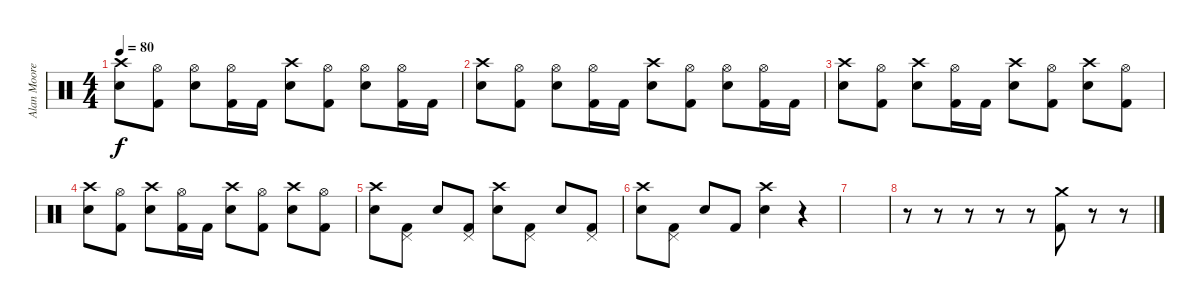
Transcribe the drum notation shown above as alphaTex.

\track ("Alan Moore" "Alan Moore") {instrument percussion}
\staff {score}
\articulation defaults
\ts (4 4)
\tempo 80
\clef neutral
\ks c
("Snare (hit) 2" "Crash high (hit)").8{dy f} ("Hi-Hat (open)" "Kick (hit) 2").8 ("Snare (hit) 2" "Hi-Hat (open)").8 ("Hi-Hat (open)" "Kick (hit) 2").16 "Kick (hit) 2".16 ("Snare (hit) 2" "Crash high (hit)").8 ("Hi-Hat (open)" "Kick (hit) 2").8 ("Snare (hit) 2" "Hi-Hat (open)").8 ("Hi-Hat (open)" "Kick (hit) 2").16 "Kick (hit) 2".16 |
("Snare (hit) 2" "Crash high (hit)").8 ("Hi-Hat (open)" "Kick (hit) 2").8 ("Snare (hit) 2" "Hi-Hat (open)").8 ("Hi-Hat (open)" "Kick (hit) 2").16 "Kick (hit) 2".16 ("Snare (hit) 2" "Crash high (hit)").8 ("Hi-Hat (open)" "Kick (hit) 2").8 ("Snare (hit) 2" "Hi-Hat (open)").8 ("Hi-Hat (open)" "Kick (hit) 2").16 "Kick (hit) 2".16 |
("Snare (hit) 2" "Crash high (hit)").8 ("Hi-Hat (open)" "Kick (hit) 2").8 ("Snare (hit) 2" "Crash high (hit)").8 ("Hi-Hat (open)" "Kick (hit) 2").16 "Kick (hit) 2".16 ("Snare (hit) 2" "Crash high (hit)").8 ("Hi-Hat (open)" "Kick (hit) 2").8 ("Snare (hit) 2" "Crash high (hit)").8 ("Hi-Hat (open)" "Kick (hit) 2").8 |
("Snare (hit) 2" "Crash high (hit)").8 ("Hi-Hat (open)" "Kick (hit) 2").8 ("Snare (hit) 2" "Crash high (hit)").8 ("Hi-Hat (open)" "Kick (hit) 2").16 "Kick (hit) 2".16 ("Snare (hit) 2" "Crash high (hit)").8 ("Hi-Hat (open)" "Kick (hit) 2").8 ("Snare (hit) 2" "Crash high (hit)").8 ("Hi-Hat (open)" "Kick (hit) 2").8 |
("Snare (hit) 2" "Crash high (hit)").8 ("Pedal Hi-Hat (hit)" "Kick (hit) 2").8 "Snare (hit) 2".8 ("Pedal Hi-Hat (hit)" "Kick (hit) 2").8 ("Snare (hit) 2" "Crash high (hit)").8 ("Pedal Hi-Hat (hit)" "Kick (hit) 2").8 "Snare (hit) 2".8 ("Pedal Hi-Hat (hit)" "Kick (hit) 2").8 |
("Snare (hit) 2" "Crash high (hit)").8 ("Pedal Hi-Hat (hit)" "Kick (hit) 2").8 "Snare (hit) 2".8 "Kick (hit) 2".8 ("Snare (hit) 2" "Crash high (hit)").4 r.4 |
|
r.8 r.8 r.8 r.8 r.8 ("Kick (hit) 2" "Crash medium (hit)").8 r.8 r.8
